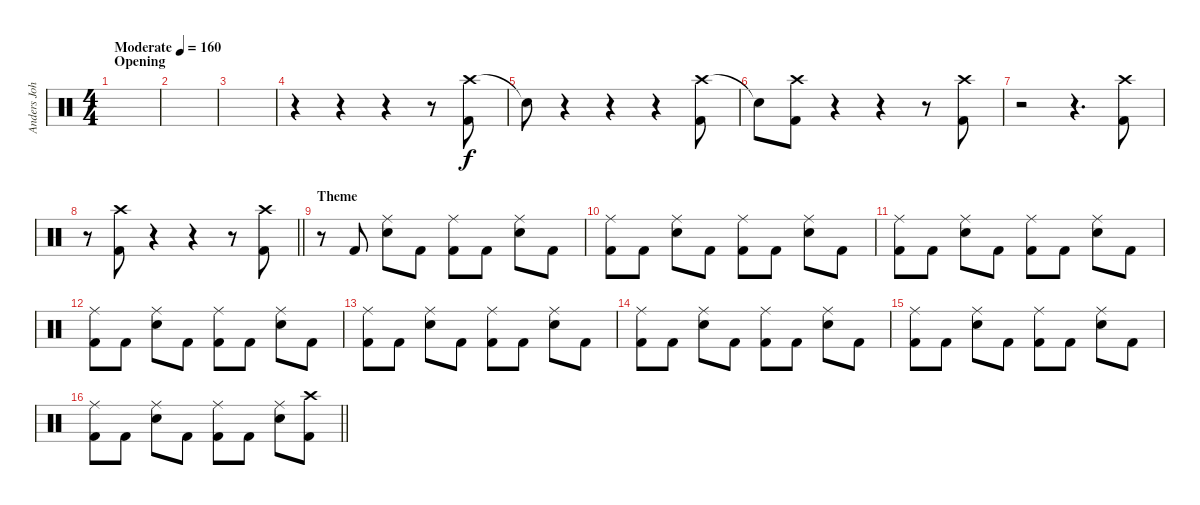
\track ("Anders Johansson" "Anders Joh") {instrument percussion}
\staff {score}
\articulation defaults
\ts (4 4)
\section ("" "Opening")
\tempo (160 "Moderate")
\clef neutral
\ks c
|
|
|
r.4 r.4 r.4 r.8 ("Crash high (hit)" "Kick (hit) 2").8 |
"Snare (hit)"{t}.8 r.4 r.4 r.4 ("Crash high (hit)" "Kick (hit) 2").8 |
"Snare (hit)"{t}.8 ("Crash high (hit)" "Kick (hit) 2").8 r.4 r.4 r.8 ("Crash high (hit)" "Kick (hit) 2").8 |
r.2 r.4{d} ("Crash high (hit)" "Kick (hit) 2").8 |
\barLineRight lightlight
r.8 ("Crash high (hit)" "Kick (hit) 2").8 r.4 r.4 r.8 ("Crash high (hit)" "Kick (hit) 2").8 |
\section ("" "Theme")
r.8 "Kick (hit) 2".8 ("Ride (middle)" "Snare (hit) 2").8 "Kick (hit) 2".8 ("Ride (middle)" "Kick (hit) 2").8 "Kick (hit) 2".8 ("Ride (middle)" "Snare (hit) 2").8 "Kick (hit) 2".8 |
("Ride (middle)" "Kick (hit) 2").8 "Kick (hit) 2".8 ("Ride (middle)" "Snare (hit) 2").8 "Kick (hit) 2".8 ("Ride (middle)" "Kick (hit) 2").8 "Kick (hit) 2".8 ("Ride (middle)" "Snare (hit) 2").8 "Kick (hit) 2".8 |
("Ride (middle)" "Kick (hit) 2").8 "Kick (hit) 2".8 ("Ride (middle)" "Snare (hit) 2").8 "Kick (hit) 2".8 ("Ride (middle)" "Kick (hit) 2").8 "Kick (hit) 2".8 ("Ride (middle)" "Snare (hit) 2").8 "Kick (hit) 2".8 |
("Ride (middle)" "Kick (hit) 2").8 "Kick (hit) 2".8 ("Ride (middle)" "Snare (hit) 2").8 "Kick (hit) 2".8 ("Ride (middle)" "Kick (hit) 2").8 "Kick (hit) 2".8 ("Ride (middle)" "Snare (hit) 2").8 "Kick (hit) 2".8 |
("Ride (middle)" "Kick (hit) 2").8 "Kick (hit) 2".8 ("Ride (middle)" "Snare (hit) 2").8 "Kick (hit) 2".8 ("Ride (middle)" "Kick (hit) 2").8 "Kick (hit) 2".8 ("Ride (middle)" "Snare (hit) 2").8 "Kick (hit) 2".8 |
("Ride (middle)" "Kick (hit) 2").8 "Kick (hit) 2".8 ("Ride (middle)" "Snare (hit) 2").8 "Kick (hit) 2".8 ("Ride (middle)" "Kick (hit) 2").8 "Kick (hit) 2".8 ("Ride (middle)" "Snare (hit) 2").8 "Kick (hit) 2".8 |
("Ride (middle)" "Kick (hit) 2").8 "Kick (hit) 2".8 ("Ride (middle)" "Snare (hit) 2").8 "Kick (hit) 2".8 ("Ride (middle)" "Kick (hit) 2").8 "Kick (hit) 2".8 ("Ride (middle)" "Snare (hit) 2").8 "Kick (hit) 2".8 |
\barLineRight lightlight
("Ride (middle)" "Kick (hit) 2").8 "Kick (hit) 2".8 ("Ride (middle)" "Snare (hit) 2").8 "Kick (hit) 2".8 ("Ride (middle)" "Kick (hit) 2").8 "Kick (hit) 2".8 ("Ride (middle)" "Snare (hit) 2").8 ("Crash high (hit)" "Kick (hit) 2").8
